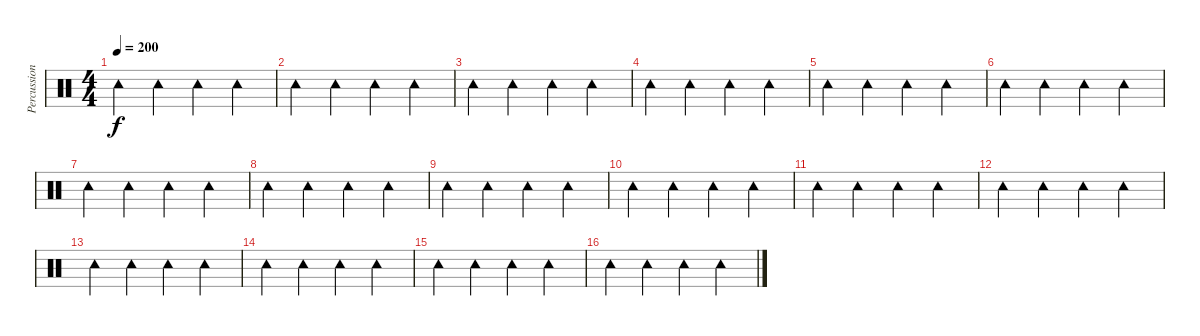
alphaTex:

\track ("Percussion" "Percussion") {instrument percussion}
\staff {score}
\articulation defaults
\ts (4 4)
\tempo 200
\clef neutral
\ks c "Tambourine (hit)".4{dy f} "Tambourine (hit)".4 "Tambourine (hit)".4 "Tambourine (hit)".4
|
"Tambourine (hit)".4 "Tambourine (hit)".4 "Tambourine (hit)".4 "Tambourine (hit)".4 |
"Tambourine (hit)".4 "Tambourine (hit)".4 "Tambourine (hit)".4 "Tambourine (hit)".4 |
"Tambourine (hit)".4 "Tambourine (hit)".4 "Tambourine (hit)".4 "Tambourine (hit)".4 |
"Tambourine (hit)".4 "Tambourine (hit)".4 "Tambourine (hit)".4 "Tambourine (hit)".4 |
"Tambourine (hit)".4 "Tambourine (hit)".4 "Tambourine (hit)".4 "Tambourine (hit)".4 |
"Tambourine (hit)".4 "Tambourine (hit)".4 "Tambourine (hit)".4 "Tambourine (hit)".4 |
"Tambourine (hit)".4 "Tambourine (hit)".4 "Tambourine (hit)".4 "Tambourine (hit)".4 |
"Tambourine (hit)".4 "Tambourine (hit)".4 "Tambourine (hit)".4 "Tambourine (hit)".4 |
"Tambourine (hit)".4 "Tambourine (hit)".4 "Tambourine (hit)".4 "Tambourine (hit)".4 |
"Tambourine (hit)".4 "Tambourine (hit)".4 "Tambourine (hit)".4 "Tambourine (hit)".4 |
"Tambourine (hit)".4 "Tambourine (hit)".4 "Tambourine (hit)".4 "Tambourine (hit)".4 |
"Tambourine (hit)".4 "Tambourine (hit)".4 "Tambourine (hit)".4 "Tambourine (hit)".4 |
"Tambourine (hit)".4 "Tambourine (hit)".4 "Tambourine (hit)".4 "Tambourine (hit)".4 |
"Tambourine (hit)".4 "Tambourine (hit)".4 "Tambourine (hit)".4 "Tambourine (hit)".4 |
"Tambourine (hit)".4 "Tambourine (hit)".4 "Tambourine (hit)".4 "Tambourine (hit)".4
